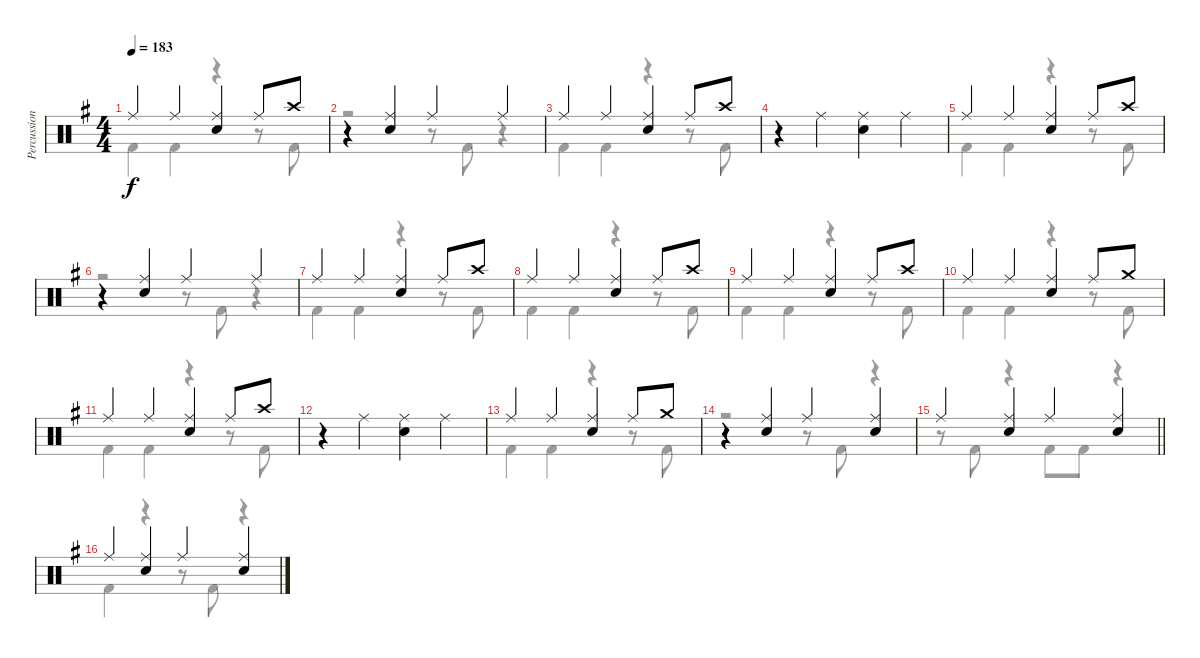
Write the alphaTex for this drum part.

\track ("Percussion" "Percussion") {instrument percussion}
\staff {score}
\articulation defaults
\voice
\ts (4 4)
\tempo 183
\clef neutral
\ks g "Ride (middle)".4{dy f} "Ride (middle)".4
("Ride (middle)" "Electric Snare (hit)").4 "Ride (middle)".8 "Crash high (hit)".8 |
r.4 ("Ride (middle)" "Electric Snare (hit)").4 "Ride (middle)".4 "Ride (middle)".4 |
"Ride (middle)".4 "Ride (middle)".4 ("Ride (middle)" "Electric Snare (hit)").4 "Ride (middle)".8 "Crash high (hit)".8 |
r.4 "Ride (middle)".4 ("Ride (middle)" "Electric Snare (hit)").4 "Ride (middle)".4 |
"Ride (middle)".4 "Ride (middle)".4 ("Ride (middle)" "Electric Snare (hit)").4 "Ride (middle)".8 "Crash high (hit)".8 |
r.4 ("Ride (middle)" "Electric Snare (hit)").4 "Ride (middle)".4 "Ride (middle)".4 |
"Ride (middle)".4 "Ride (middle)".4 ("Ride (middle)" "Electric Snare (hit)").4 "Ride (middle)".8 "Crash high (hit)".8 |
"Ride (middle)".4 "Ride (middle)".4 ("Ride (middle)" "Electric Snare (hit)").4 "Ride (middle)".8 "Crash high (hit)".8 |
"Ride (middle)".4 "Ride (middle)".4 ("Ride (middle)" "Electric Snare (hit)").4 "Ride (middle)".8 "Crash high (hit)".8 |
"Ride (middle)".4 "Ride (middle)".4 ("Ride (middle)" "Electric Snare (hit)").4 "Ride (middle)".8 "Crash medium (hit)".8 |
"Ride (middle)".4 "Ride (middle)".4 ("Ride (middle)" "Electric Snare (hit)").4 "Ride (middle)".8 "Crash high (hit)".8 |
r.4 "Ride (middle)".4 ("Ride (middle)" "Electric Snare (hit)").4 "Ride (middle)".4 |
"Ride (middle)".4 "Ride (middle)".4 ("Ride (middle)" "Electric Snare (hit)").4 "Ride (middle)".8 "Crash medium (hit)".8 |
r.4 ("Ride (middle)" "Electric Snare (hit)").4 "Ride (middle)".4 ("Ride (middle)" "Electric Snare (hit)").4 |
\barLineRight lightlight "Ride (middle)".4
("Ride (middle)" "Electric Snare (hit)").4 "Ride (middle)".4 ("Ride (middle)" "Electric Snare (hit)").4 |
"Ride (middle)".4 ("Ride (middle)" "Electric Snare (hit)").4 "Ride (middle)".4 ("Ride (middle)" "Electric Snare (hit)").4
\voice
\clef neutral
\ottava regular
\simile none
\ks g "Kick (hit) 2".4{dy f} "Kick (hit) 2".4
r.4 r.8 "Kick (hit) 2".8 |
r.2 r.8 "Kick (hit) 2".8 r.4 |
"Kick (hit) 2".4 "Kick (hit) 2".4 r.4 r.8 "Kick (hit) 2".8 |
|
"Kick (hit) 2".4 "Kick (hit) 2".4 r.4 r.8 "Kick (hit) 2".8 |
r.2 r.8 "Kick (hit) 2".8 r.4 |
"Kick (hit) 2".4 "Kick (hit) 2".4 r.4 r.8 "Kick (hit) 2".8 |
"Kick (hit) 2".4 "Kick (hit) 2".4 r.4 r.8 "Kick (hit) 2".8 |
"Kick (hit) 2".4 "Kick (hit) 2".4 r.4 r.8 "Kick (hit) 2".8 |
"Kick (hit) 2".4 "Kick (hit) 2".4 r.4 r.8 "Kick (hit) 2".8 |
"Kick (hit) 2".4 "Kick (hit) 2".4 r.4 r.8 "Kick (hit) 2".8 |
|
"Kick (hit) 2".4 "Kick (hit) 2".4 r.4 r.8 "Kick (hit) 2".8 |
r.2 r.8 "Kick (hit) 2".8 r.4 |
\barLineRight lightlight
r.8 "Kick (hit) 2".8 r.4 "Kick (hit) 2".8 "Kick (hit) 2".8 r.4 |
"Kick (hit) 2".4 r.4 r.8 "Kick (hit) 2".8 r.4
